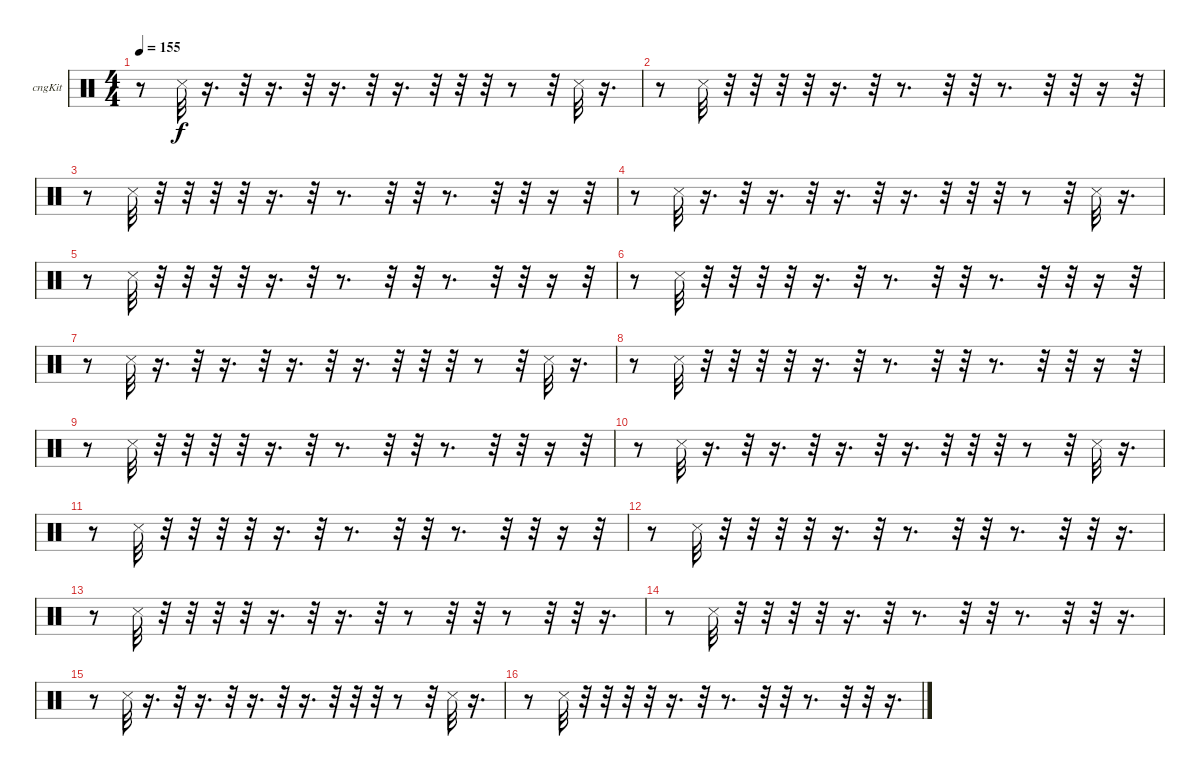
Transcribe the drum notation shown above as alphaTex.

\bracketExtendMode groupsimilarinstruments
\firstSystemTrackNameOrientation horizontal
\otherSystemsTrackNameOrientation horizontal
\track ("Е. Кулаков" "cngKit") {instrument percussion}
\staff {score}
\articulation defaults
\ts (4 4)
\tempo 155
\clef neutral
\ks c
r.8{dy f} "Snare (side stick) 3".32 r.16{d} r.32 r.16{d} r.32 r.16{d} r.32 r.16{d} r.32 r.32 r.32 r.8 r.32 "Snare (side stick) 3".32 r.16{d} |
r.8 "Snare (side stick) 3".32 r.32 r.32 r.32 r.32 r.16{d} r.32 r.8{d} r.32 r.32 r.8{d} r.32 r.32 r.16 r.32 |
r.8 "Snare (side stick) 3".32 r.32 r.32 r.32 r.32 r.16{d} r.32 r.8{d} r.32 r.32 r.8{d} r.32 r.32 r.16 r.32 |
r.8 "Snare (side stick) 3".32 r.16{d} r.32 r.16{d} r.32 r.16{d} r.32 r.16{d} r.32 r.32 r.32 r.8 r.32 "Snare (side stick) 3".32 r.16{d} |
r.8 "Snare (side stick) 3".32 r.32 r.32 r.32 r.32 r.16{d} r.32 r.8{d} r.32 r.32 r.8{d} r.32 r.32 r.16 r.32 |
r.8 "Snare (side stick) 3".32 r.32 r.32 r.32 r.32 r.16{d} r.32 r.8{d} r.32 r.32 r.8{d} r.32 r.32 r.16 r.32 |
r.8 "Snare (side stick) 3".32 r.16{d} r.32 r.16{d} r.32 r.16{d} r.32 r.16{d} r.32 r.32 r.32 r.8 r.32 "Snare (side stick) 3".32 r.16{d} |
r.8 "Snare (side stick) 3".32 r.32 r.32 r.32 r.32 r.16{d} r.32 r.8{d} r.32 r.32 r.8{d} r.32 r.32 r.16 r.32 |
r.8 "Snare (side stick) 3".32 r.32 r.32 r.32 r.32 r.16{d} r.32 r.8{d} r.32 r.32 r.8{d} r.32 r.32 r.16 r.32 |
r.8 "Snare (side stick) 3".32 r.16{d} r.32 r.16{d} r.32 r.16{d} r.32 r.16{d} r.32 r.32 r.32 r.8 r.32 "Snare (side stick) 3".32 r.16{d} |
r.8 "Snare (side stick) 3".32 r.32 r.32 r.32 r.32 r.16{d} r.32 r.8{d} r.32 r.32 r.8{d} r.32 r.32 r.16 r.32 |
r.8 "Snare (side stick) 3".32 r.32 r.32 r.32 r.32 r.16{d} r.32 r.8{d} r.32 r.32 r.8{d} r.32 r.32 r.16{d} |
r.8 "Snare (side stick) 3".32 r.32 r.32 r.32 r.32 r.16{d} r.32 r.16{d} r.32 r.8 r.32 r.32 r.8 r.32 r.32 r.16{d} |
r.8 "Snare (side stick) 3".32 r.32 r.32 r.32 r.32 r.16{d} r.32 r.8{d} r.32 r.32 r.8{d} r.32 r.32 r.16{d} |
r.8 "Snare (side stick) 3".32 r.16{d} r.32 r.16{d} r.32 r.16{d} r.32 r.16{d} r.32 r.32 r.32 r.8 r.32 "Snare (side stick) 3".32 r.16{d} |
r.8 "Snare (side stick) 3".32 r.32 r.32 r.32 r.32 r.16{d} r.32 r.8{d} r.32 r.32 r.8{d} r.32 r.32 r.16{d}
